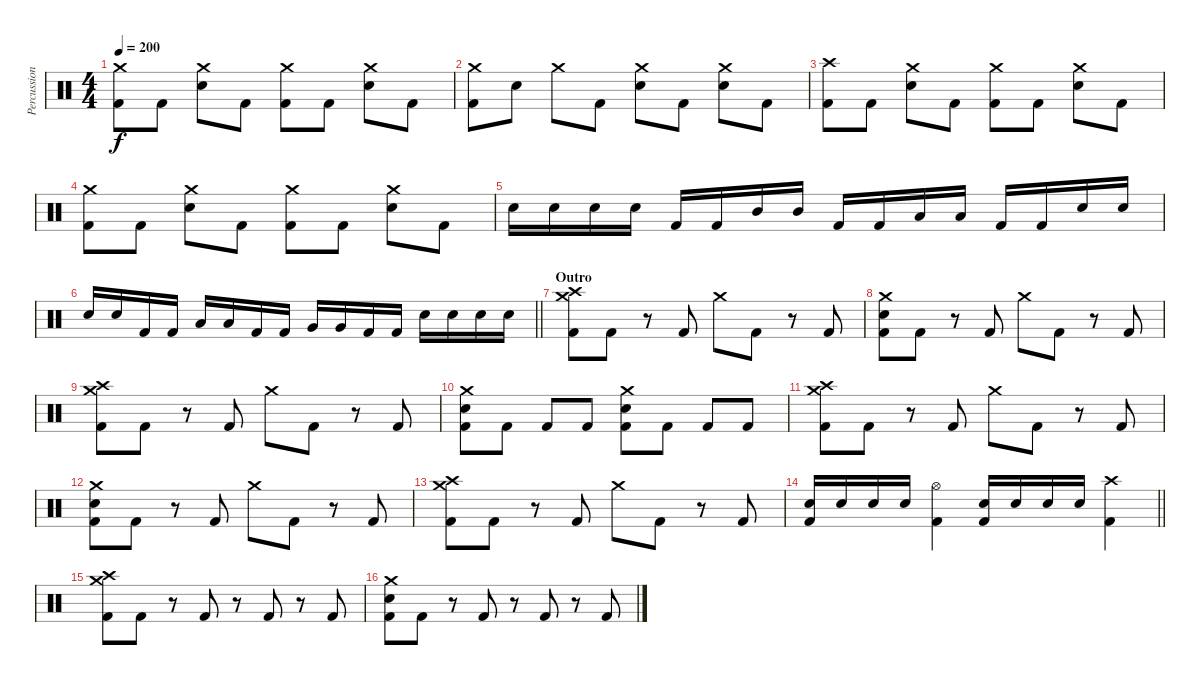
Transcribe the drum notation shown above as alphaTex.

\track ("Percussion" "Percussion") {instrument percussion}
\staff {score}
\articulation defaults
\ts (4 4)
\tempo 200
\clef neutral
\ks c
("Crash medium (hit)" "Kick (hit) 2").8{dy f} "Kick (hit) 2".8 ("Crash medium (hit)" "Electric Snare (hit)").8 "Kick (hit) 2".8 ("Crash medium (hit)" "Kick (hit) 2").8 "Kick (hit) 2".8 ("Crash medium (hit)" "Electric Snare (hit)").8 "Kick (hit) 2".8 |
("Crash medium (hit)" "Kick (hit) 2").8 "Electric Snare (hit)".8 "Crash medium (hit)".8 "Kick (hit) 2".8 ("Crash medium (hit)" "Electric Snare (hit)").8 "Kick (hit) 2".8 ("Crash medium (hit)" "Electric Snare (hit)").8 "Kick (hit) 2".8 |
("Crash high (hit)" "Kick (hit) 2").8 "Kick (hit) 2".8 ("Crash medium (hit)" "Electric Snare (hit)").8 "Kick (hit) 2".8 ("Crash medium (hit)" "Kick (hit) 2").8 "Kick (hit) 2".8 ("Crash medium (hit)" "Electric Snare (hit)").8 "Kick (hit) 2".8 |
("Crash medium (hit)" "Kick (hit) 2").8 "Kick (hit) 2".8 ("Crash medium (hit)" "Electric Snare (hit)").8 "Kick (hit) 2".8 ("Crash medium (hit)" "Kick (hit) 2").8 "Kick (hit) 2".8 ("Crash medium (hit)" "Electric Snare (hit)").8 "Kick (hit) 2".8 |
"Electric Snare (hit)".16 "Electric Snare (hit)".16 "Electric Snare (hit)".16 "Electric Snare (hit)".16 "Kick (hit) 2".16 "Kick (hit) 2".16 "Mid Tom (hit)".16 "Mid Tom (hit)".16 "Kick (hit) 2".16 "Kick (hit) 2".16 "Low Tom (hit)".16 "Low Tom (hit)".16 "Kick (hit) 2".16 "Kick (hit) 2".16 "Electric Snare (hit)".16 "Electric Snare (hit)".16 |
\barLineRight lightlight "Electric Snare (hit)".16 "Electric Snare (hit)".16 "Kick (hit) 2".16 "Kick (hit) 2".16 "Low Tom (hit)".16 "Low Tom (hit)".16 "Kick (hit) 2".16 "Kick (hit) 2".16 "Very Low Tom (hit)".16 "Very Low Tom (hit)".16 "Kick (hit) 2".16 "Kick (hit) 2".16 "Electric Snare (hit)".16 "Electric Snare (hit)".16 "Electric Snare (hit)".16 "Electric Snare (hit)".16
|
\section ("" "Outro")
("Crash medium (hit)" "Crash high (hit)" "Kick (hit) 2").8 "Kick (hit) 2".8 r.8 "Kick (hit) 2".8 "Crash medium (hit)".8 "Kick (hit) 2".8 r.8 "Kick (hit) 2".8 |
("Crash medium (hit)" "Electric Snare (hit)" "Kick (hit) 2").8 "Kick (hit) 2".8 r.8 "Kick (hit) 2".8 "Crash medium (hit)".8 "Kick (hit) 2".8 r.8 "Kick (hit) 2".8 |
("Crash medium (hit)" "Crash high (hit)" "Kick (hit) 2").8 "Kick (hit) 2".8 r.8 "Kick (hit) 2".8 "Crash medium (hit)".8 "Kick (hit) 2".8 r.8 "Kick (hit) 2".8 |
("Crash medium (hit)" "Electric Snare (hit)" "Kick (hit) 2").8 "Kick (hit) 2".8 "Kick (hit) 2".8 "Kick (hit) 2".8 ("Crash medium (hit)" "Electric Snare (hit)" "Kick (hit) 2").8 "Kick (hit) 2".8 "Kick (hit) 2".8 "Kick (hit) 2".8 |
("Crash medium (hit)" "Crash high (hit)" "Kick (hit) 2").8 "Kick (hit) 2".8 r.8 "Kick (hit) 2".8 "Crash medium (hit)".8 "Kick (hit) 2".8 r.8 "Kick (hit) 2".8 |
("Crash medium (hit)" "Electric Snare (hit)" "Kick (hit) 2").8 "Kick (hit) 2".8 r.8 "Kick (hit) 2".8 "Crash medium (hit)".8 "Kick (hit) 2".8 r.8 "Kick (hit) 2".8 |
("Crash medium (hit)" "Crash high (hit)" "Kick (hit) 2").8 "Kick (hit) 2".8 r.8 "Kick (hit) 2".8 "Crash medium (hit)".8 "Kick (hit) 2".8 r.8 "Kick (hit) 2".8 |
\barLineRight lightlight
("Electric Snare (hit)" "Kick (hit) 2").16 "Electric Snare (hit)".16 "Electric Snare (hit)".16 "Electric Snare (hit)".16 ("Hi-Hat (open)" "Kick (hit) 2").4 ("Electric Snare (hit)" "Kick (hit) 2").16 "Electric Snare (hit)".16 "Electric Snare (hit)".16 "Electric Snare (hit)".16 ("Crash high (hit)" "Kick (hit) 2").4 |
("Crash medium (hit)" "Crash high (hit)" "Kick (hit) 2").8 "Kick (hit) 2".8 r.8 "Kick (hit) 2".8 r.8 "Kick (hit) 2".8 r.8 "Kick (hit) 2".8 |
("Crash medium (hit)" "Electric Snare (hit)" "Kick (hit) 2").8 "Kick (hit) 2".8 r.8 "Kick (hit) 2".8 r.8 "Kick (hit) 2".8 r.8 "Kick (hit) 2".8
